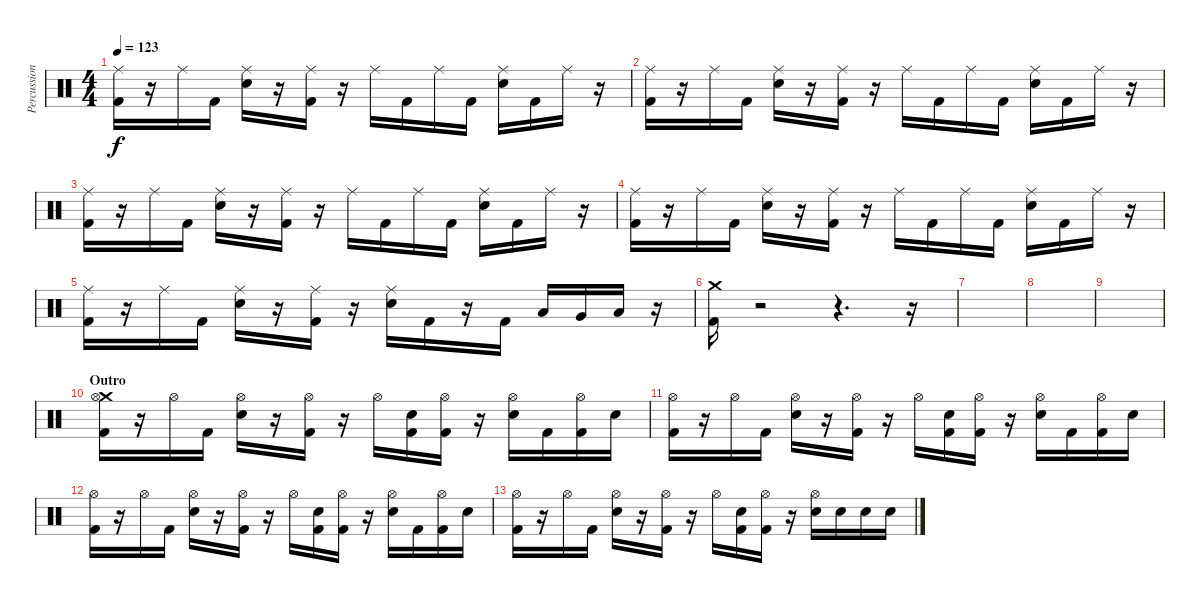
\track ("Percussion" "Percussion") {instrument percussion}
\staff {score}
\articulation defaults
\ts (4 4)
\tempo 123
\clef neutral
\ks c
("Ride (middle)" "Kick (hit) 2").16{dy f} r.16 "Ride (middle)".16 "Kick (hit) 2".16 ("Ride (middle)" "Electric Snare (hit)").16 r.16 ("Ride (middle)" "Kick (hit) 2").16 r.16 "Ride (middle)".16 "Kick (hit) 2".16 "Ride (middle)".16 "Kick (hit) 2".16 ("Ride (middle)" "Electric Snare (hit)").16 "Kick (hit) 2".16 "Ride (middle)".16 r.16 |
("Ride (middle)" "Kick (hit) 2").16 r.16 "Ride (middle)".16 "Kick (hit) 2".16 ("Ride (middle)" "Electric Snare (hit)").16 r.16 ("Ride (middle)" "Kick (hit) 2").16 r.16 "Ride (middle)".16 "Kick (hit) 2".16 "Ride (middle)".16 "Kick (hit) 2".16 ("Ride (middle)" "Electric Snare (hit)").16 "Kick (hit) 2".16 "Ride (middle)".16 r.16 |
("Ride (middle)" "Kick (hit) 2").16 r.16 "Ride (middle)".16 "Kick (hit) 2".16 ("Ride (middle)" "Electric Snare (hit)").16 r.16 ("Ride (middle)" "Kick (hit) 2").16 r.16 "Ride (middle)".16 "Kick (hit) 2".16 "Ride (middle)".16 "Kick (hit) 2".16 ("Ride (middle)" "Electric Snare (hit)").16 "Kick (hit) 2".16 "Ride (middle)".16 r.16 |
("Ride (middle)" "Kick (hit) 2").16 r.16 "Ride (middle)".16 "Kick (hit) 2".16 ("Ride (middle)" "Electric Snare (hit)").16 r.16 ("Ride (middle)" "Kick (hit) 2").16 r.16 "Ride (middle)".16 "Kick (hit) 2".16 "Ride (middle)".16 "Kick (hit) 2".16 ("Ride (middle)" "Electric Snare (hit)").16 "Kick (hit) 2".16 "Ride (middle)".16 r.16 |
("Ride (middle)" "Kick (hit) 2").16 r.16 "Ride (middle)".16 "Kick (hit) 2".16 ("Ride (middle)" "Electric Snare (hit)").16 r.16 ("Ride (middle)" "Kick (hit) 2").16 r.16 ("Ride (middle)" "Electric Snare (hit)").16 "Kick (hit) 2".16 r.16 "Kick (hit) 2".16 "Low Tom (hit)".16 "Very Low Tom (hit)".16 "Low Floor Tom (hit)".16 r.16 |
("Crash medium (hit)" "Kick (hit) 2").16 r.2 r.4{d} r.16 |
|
|
|
\section ("" "Outro")
("Crash medium (hit)" "Hi-Hat (open)" "Kick (hit) 2").16 r.16 "Hi-Hat (open)".16 "Kick (hit) 2".16 ("Hi-Hat (open)" "Electric Snare (hit)").16 r.16 ("Hi-Hat (open)" "Kick (hit) 2").16 r.16 "Hi-Hat (open)".16 ("Electric Snare (hit)" "Kick (hit) 2").16 ("Hi-Hat (open)" "Kick (hit) 2").16 r.16 ("Hi-Hat (open)" "Electric Snare (hit)").16 "Kick (hit) 2".16 ("Hi-Hat (open)" "Kick (hit) 2").16 "Electric Snare (hit)".16 |
("Hi-Hat (open)" "Kick (hit) 2").16 r.16 "Hi-Hat (open)".16 "Kick (hit) 2".16 ("Hi-Hat (open)" "Electric Snare (hit)").16 r.16 ("Hi-Hat (open)" "Kick (hit) 2").16 r.16 "Hi-Hat (open)".16 ("Electric Snare (hit)" "Kick (hit) 2").16 ("Hi-Hat (open)" "Kick (hit) 2").16 r.16 ("Hi-Hat (open)" "Electric Snare (hit)").16 "Kick (hit) 2".16 ("Hi-Hat (open)" "Kick (hit) 2").16 "Electric Snare (hit)".16 |
("Hi-Hat (open)" "Kick (hit) 2").16 r.16 "Hi-Hat (open)".16 "Kick (hit) 2".16 ("Hi-Hat (open)" "Electric Snare (hit)").16 r.16 ("Hi-Hat (open)" "Kick (hit) 2").16 r.16 "Hi-Hat (open)".16 ("Electric Snare (hit)" "Kick (hit) 2").16 ("Hi-Hat (open)" "Kick (hit) 2").16 r.16 ("Hi-Hat (open)" "Electric Snare (hit)").16 "Kick (hit) 2".16 ("Hi-Hat (open)" "Kick (hit) 2").16 "Electric Snare (hit)".16 |
("Hi-Hat (open)" "Kick (hit) 2").16 r.16 "Hi-Hat (open)".16 "Kick (hit) 2".16 ("Hi-Hat (open)" "Electric Snare (hit)").16 r.16 ("Hi-Hat (open)" "Kick (hit) 2").16 r.16 "Hi-Hat (open)".16 ("Electric Snare (hit)" "Kick (hit) 2").16 ("Hi-Hat (open)" "Kick (hit) 2").16 r.16 ("Hi-Hat (open)" "Electric Snare (hit)").16 "Electric Snare (hit)".16 "Electric Snare (hit)".16 "Electric Snare (hit)".16
